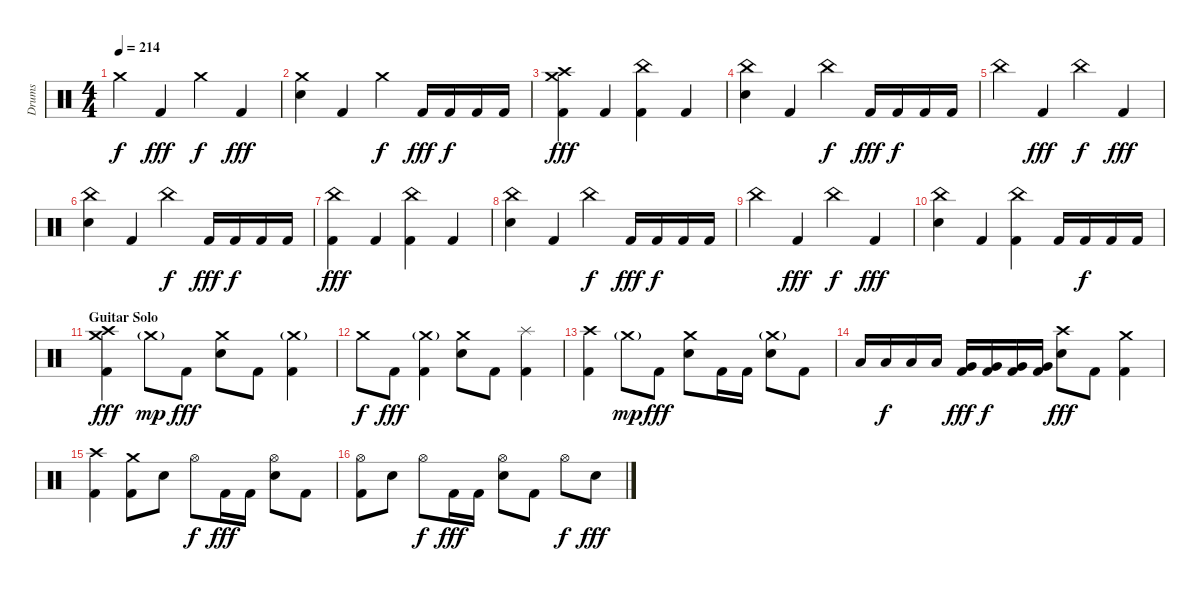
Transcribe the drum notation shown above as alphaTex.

\track ("Drums" "Drums") {instrument percussion}
\staff {score}
\articulation defaults
\ts (4 4)
\tempo 214
\clef neutral
\ks c "Crash medium (hit)".4{dy f} "Kick (hit) 2".4{dy fff} "Crash medium (hit)".4{dy f} "Kick (hit) 2".4{dy fff}
|
("Crash medium (hit)" "Electric Snare (hit)").4 "Kick (hit) 2".4 "Crash medium (hit)".4{dy f} "Kick (hit) 2".16{dy fff} "Kick (hit) 2".16{dy f} "Kick (hit) 2".16 "Kick (hit) 2".16 |
("Crash medium (hit)" "Crash high (hit)" "Kick (hit) 2").4{dy fff} "Kick (hit) 2".4 ("China (hit)" "Kick (hit) 2").4 "Kick (hit) 2".4 |
("China (hit)" "Electric Snare (hit)").4 "Kick (hit) 2".4 "China (hit)".4{dy f} "Kick (hit) 2".16{dy fff} "Kick (hit) 2".16{dy f} "Kick (hit) 2".16 "Kick (hit) 2".16 |
"China (hit)".4 "Kick (hit) 2".4{dy fff} "China (hit)".4{dy f} "Kick (hit) 2".4{dy fff} |
("China (hit)" "Electric Snare (hit)").4 "Kick (hit) 2".4 "China (hit)".4{dy f} "Kick (hit) 2".16{dy fff} "Kick (hit) 2".16{dy f} "Kick (hit) 2".16 "Kick (hit) 2".16 |
("China (hit)" "Kick (hit) 2").4{dy fff} "Kick (hit) 2".4 ("China (hit)" "Kick (hit) 2").4 "Kick (hit) 2".4 |
("China (hit)" "Electric Snare (hit)").4 "Kick (hit) 2".4 "China (hit)".4{dy f} "Kick (hit) 2".16{dy fff} "Kick (hit) 2".16{dy f} "Kick (hit) 2".16 "Kick (hit) 2".16 |
"China (hit)".4 "Kick (hit) 2".4{dy fff} "China (hit)".4{dy f} "Kick (hit) 2".4{dy fff} |
("China (hit)" "Electric Snare (hit)").4 "Kick (hit) 2".4 ("China (hit)" "Kick (hit) 2").4 "Kick (hit) 2".16 "Kick (hit) 2".16{dy f} "Kick (hit) 2".16 "Kick (hit) 2".16 |
\section ("" "Guitar Solo")
("Crash medium (hit)" "Crash high (hit)" "Kick (hit) 2").4{dy fff} "Crash medium (hit)"{g}.8{dy mp} "Kick (hit) 2".8{dy fff} ("Crash medium (hit)" "Electric Snare (hit)").8 "Kick (hit) 2".8 ("Crash medium (hit)"{g} "Kick (hit) 2").4 |
"Crash medium (hit)".8{dy f} "Kick (hit) 2".8{dy fff} ("Crash medium (hit)"{g} "Kick (hit) 2").4 ("Crash medium (hit)" "Electric Snare (hit)").8 "Kick (hit) 2".8 ("Splash (hit)" "Kick (hit) 2").4 |
("Crash high (hit)" "Kick (hit) 2").4 "Crash medium (hit)"{g}.8{dy mp} "Kick (hit) 2".8{dy fff} ("Crash medium (hit)" "Electric Snare (hit)").8 "Kick (hit) 2".16 "Kick (hit) 2".16 ("Crash medium (hit)"{g} "Electric Snare (hit)").8 "Kick (hit) 2".8 |
"Low Tom (hit)".16 "Low Tom (hit)".16{dy f} "Low Tom (hit)".16 "Low Tom (hit)".16 ("Very Low Tom (hit)" "Kick (hit) 2").16{dy fff} ("Very Low Tom (hit)" "Kick (hit) 2").16{dy f} ("Very Low Tom (hit)" "Kick (hit) 2").16 ("Very Low Tom (hit)" "Kick (hit) 2").16 ("Crash high (hit)" "Electric Snare (hit)").8{dy fff} "Kick (hit) 2".8 ("Crash medium (hit)" "Kick (hit) 2").4 |
("Crash high (hit)" "Kick (hit) 2").4 ("Crash medium (hit)" "Kick (hit) 2").8 "Electric Snare (hit)".8 "Hi-Hat (open)".8{dy f} "Kick (hit) 2".16{dy fff} "Kick (hit) 2".16 ("Hi-Hat (open)" "Electric Snare (hit)").8 "Kick (hit) 2".8 |
("Hi-Hat (open)" "Kick (hit) 2").8 "Electric Snare (hit)".8 "Hi-Hat (open)".8{dy f} "Kick (hit) 2".16{dy fff} "Kick (hit) 2".16 ("Hi-Hat (open)" "Electric Snare (hit)").8 "Kick (hit) 2".8 "Hi-Hat (open)".8{dy f} "Electric Snare (hit)".8{dy fff}
